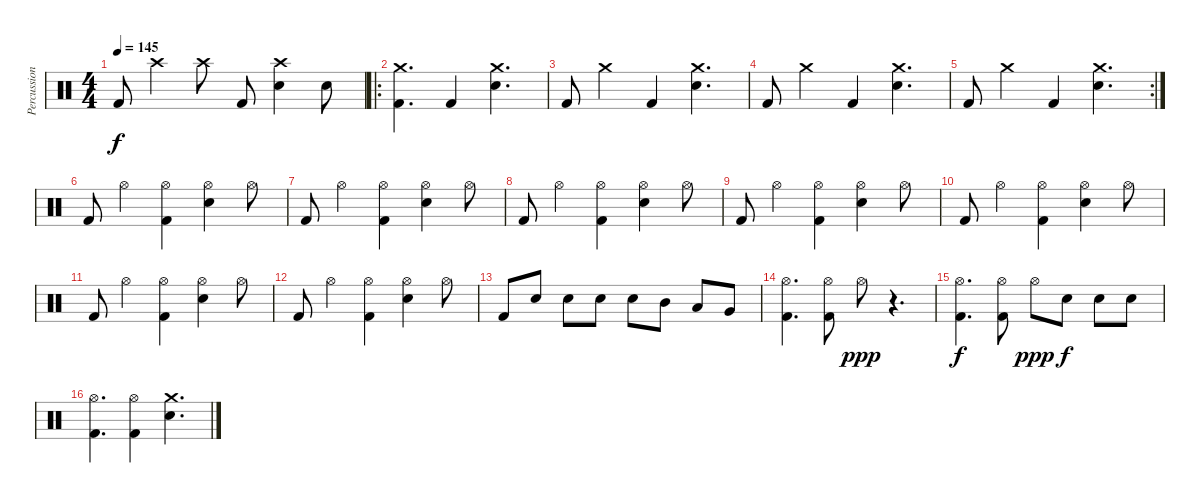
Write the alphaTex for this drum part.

\track ("Percussion" "Percussion") {instrument percussion}
\staff {score}
\articulation defaults
\ts (4 4)
\tempo 145
\clef neutral
\ks c "Kick (hit) 2".8{dy f} "Crash high (hit)".4 "Crash high (hit)".8 "Kick (hit) 2".8
("Crash high (hit)" "Electric Snare (hit)").4 "Electric Snare (hit)".8 |
\ro
("Crash medium (hit)" "Kick (hit) 2").4{d} "Kick (hit) 2".4 ("Crash medium (hit)" "Electric Snare (hit)").4{d} |
"Kick (hit) 2".8 "Crash medium (hit)".4 "Kick (hit) 2".4 ("Crash medium (hit)" "Electric Snare (hit)").4{d} |
"Kick (hit) 2".8 "Crash medium (hit)".4 "Kick (hit) 2".4 ("Crash medium (hit)" "Electric Snare (hit)").4{d} |
\rc 2 "Kick (hit) 2".8 "Crash medium (hit)".4 "Kick (hit) 2".4
("Crash medium (hit)" "Electric Snare (hit)").4{d} |
"Kick (hit) 2".8 "Hi-Hat (open)".4 ("Hi-Hat (open)" "Kick (hit) 2").4 ("Hi-Hat (open)" "Electric Snare (hit)").4 "Hi-Hat (open)".8 |
"Kick (hit) 2".8 "Hi-Hat (open)".4 ("Hi-Hat (open)" "Kick (hit) 2").4 ("Hi-Hat (open)" "Electric Snare (hit)").4 "Hi-Hat (open)".8 |
"Kick (hit) 2".8 "Hi-Hat (open)".4 ("Hi-Hat (open)" "Kick (hit) 2").4 ("Hi-Hat (open)" "Electric Snare (hit)").4 "Hi-Hat (open)".8 |
"Kick (hit) 2".8 "Hi-Hat (open)".4 ("Hi-Hat (open)" "Kick (hit) 2").4 ("Hi-Hat (open)" "Electric Snare (hit)").4 "Hi-Hat (open)".8 |
"Kick (hit) 2".8 "Hi-Hat (open)".4 ("Hi-Hat (open)" "Kick (hit) 2").4 ("Hi-Hat (open)" "Electric Snare (hit)").4 "Hi-Hat (open)".8 |
"Kick (hit) 2".8 "Hi-Hat (open)".4 ("Hi-Hat (open)" "Kick (hit) 2").4 ("Hi-Hat (open)" "Electric Snare (hit)").4 "Hi-Hat (open)".8 |
"Kick (hit) 2".8 "Hi-Hat (open)".4 ("Hi-Hat (open)" "Kick (hit) 2").4 ("Hi-Hat (open)" "Electric Snare (hit)").4 "Hi-Hat (open)".8 |
"Kick (hit) 2".8 "Electric Snare (hit)".8 "Electric Snare (hit)".8 "Electric Snare (hit)".8 "Electric Snare (hit)".8 "Mid Tom (hit)".8 "Low Tom (hit)".8 "Very Low Tom (hit)".8 |
("Hi-Hat (open)" "Kick (hit) 2").4{d} ("Hi-Hat (open)" "Kick (hit) 2").8 "Hi-Hat (open)".8{dy ppp} r.4{d} |
("Hi-Hat (open)" "Kick (hit) 2").4{d dy f} ("Hi-Hat (open)" "Kick (hit) 2").8 "Hi-Hat (open)".8{dy ppp} "Electric Snare (hit)".8{dy f} "Electric Snare (hit)".8 "Electric Snare (hit)".8 |
("Hi-Hat (open)" "Kick (hit) 2").4{d} ("Hi-Hat (open)" "Kick (hit) 2").4 ("Crash medium (hit)" "Electric Snare (hit)").4{d}
